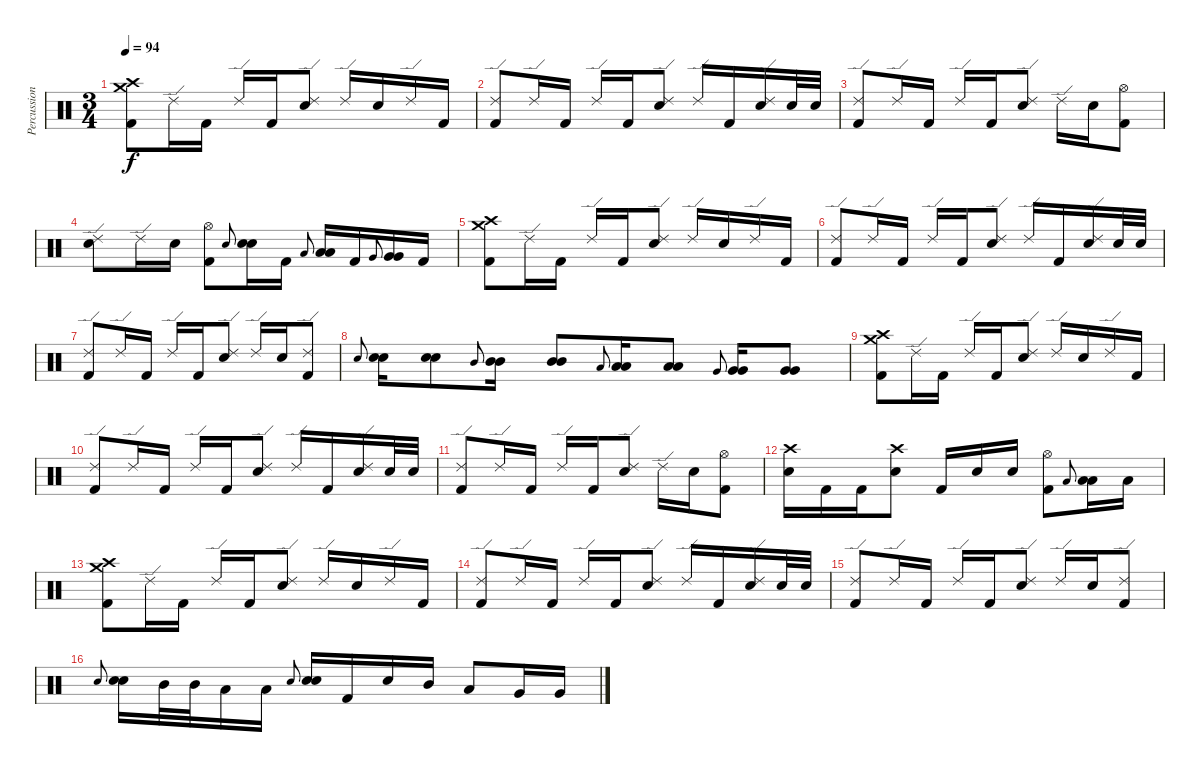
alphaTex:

\track ("Percussion" "Percussion") {instrument percussion}
\staff {score}
\articulation defaults
\ts (3 4)
\tempo 94
\clef neutral
\ks c
("Crash medium (hit)" "Crash high (hit)" "Kick (hit) 2").8{dy f} "Ride (edge) 2".16 "Kick (hit) 2".16 "Ride (edge) 2".16 "Kick (hit) 2".16 ("Ride (edge) 2" "Electric Snare (hit)").8 "Ride (edge) 2".16 "Electric Snare (hit)".16 "Ride (edge) 2".16 "Kick (hit) 2".16 |
("Ride (edge) 2" "Kick (hit) 2").8 "Ride (edge) 2".16 "Kick (hit) 2".16 "Ride (edge) 2".16 "Kick (hit) 2".16 ("Ride (edge) 2" "Electric Snare (hit)").8 "Ride (edge) 2".16 "Kick (hit) 2".16 ("Ride (edge) 2" "Electric Snare (hit)").16 "Electric Snare (hit)".32 "Electric Snare (hit)".32 |
("Ride (edge) 2" "Kick (hit) 2").8 "Ride (edge) 2".16 "Kick (hit) 2".16 "Ride (edge) 2".16 "Kick (hit) 2".16 ("Ride (edge) 2" "Electric Snare (hit)").8 "Ride (edge) 2".16 "Electric Snare (hit)".16 ("Hi-Hat (open)" "Kick (hit) 2").8 |
("Ride (edge) 2" "Electric Snare (hit)").8 "Ride (edge) 2".16 "Electric Snare (hit)".16 ("Hi-Hat (open)" "Kick (hit) 2").8 "Electric Snare (hit)".8{gr onbeat} ("Electric Snare (hit)" "Electric Snare (hit)").16 "Kick (hit) 2".16 "Low Tom (hit)".8{gr onbeat} ("Low Tom (hit)" "Low Tom (hit)").16 "Kick (hit) 2".16 "Very Low Tom (hit)".8{gr onbeat} ("Very Low Tom (hit)" "Very Low Tom (hit)").16 "Kick (hit) 2".16 |
("Crash medium (hit)" "Crash high (hit)" "Kick (hit) 2").8 "Ride (edge) 2".16 "Kick (hit) 2".16 "Ride (edge) 2".16 "Kick (hit) 2".16 ("Ride (edge) 2" "Electric Snare (hit)").8 "Ride (edge) 2".16 "Electric Snare (hit)".16 "Ride (edge) 2".16 "Kick (hit) 2".16 |
("Ride (edge) 2" "Kick (hit) 2").8 "Ride (edge) 2".16 "Kick (hit) 2".16 "Ride (edge) 2".16 "Kick (hit) 2".16 ("Ride (edge) 2" "Electric Snare (hit)").8 "Ride (edge) 2".16 "Kick (hit) 2".16 ("Ride (edge) 2" "Electric Snare (hit)").16 "Electric Snare (hit)".32 "Electric Snare (hit)".32 |
("Ride (edge) 2" "Kick (hit) 2").8 "Ride (edge) 2".16 "Kick (hit) 2".16 "Ride (edge) 2".16 "Kick (hit) 2".16 ("Ride (edge) 2" "Electric Snare (hit)").8 "Ride (edge) 2".16 "Electric Snare (hit)".16 ("Ride (edge) 2" "Kick (hit) 2").8 |
"Electric Snare (hit)".8{gr onbeat} ("Electric Snare (hit)" "Electric Snare (hit)").16 ("Electric Snare (hit)" "Electric Snare (hit)").8 "Mid Tom (hit)".8{gr onbeat} ("Mid Tom (hit)" "Mid Tom (hit)").16 ("Mid Tom (hit)" "Mid Tom (hit)").8 "Low Tom (hit)".8{gr onbeat} ("Low Tom (hit)" "Low Tom (hit)").16 ("Low Tom (hit)" "Low Tom (hit)").8 "Very Low Tom (hit)".8{gr onbeat} ("Very Low Tom (hit)" "Very Low Tom (hit)").16 ("Very Low Tom (hit)" "Very Low Tom (hit)").8 |
("Crash medium (hit)" "Crash high (hit)" "Kick (hit) 2").8 "Ride (edge) 2".16 "Kick (hit) 2".16 "Ride (edge) 2".16 "Kick (hit) 2".16 ("Ride (edge) 2" "Electric Snare (hit)").8 "Ride (edge) 2".16 "Electric Snare (hit)".16 "Ride (edge) 2".16 "Kick (hit) 2".16 |
("Ride (edge) 2" "Kick (hit) 2").8 "Ride (edge) 2".16 "Kick (hit) 2".16 "Ride (edge) 2".16 "Kick (hit) 2".16 ("Ride (edge) 2" "Electric Snare (hit)").8 "Ride (edge) 2".16 "Kick (hit) 2".16 ("Ride (edge) 2" "Electric Snare (hit)").16 "Electric Snare (hit)".32 "Electric Snare (hit)".32 |
("Ride (edge) 2" "Kick (hit) 2").8 "Ride (edge) 2".16 "Kick (hit) 2".16 "Ride (edge) 2".16 "Kick (hit) 2".16 ("Ride (edge) 2" "Electric Snare (hit)").8 "Ride (edge) 2".16 "Electric Snare (hit)".16 ("Hi-Hat (open)" "Kick (hit) 2").8 |
("Crash high (hit)" "Electric Snare (hit)").16 "Kick (hit) 2".16 "Kick (hit) 2".16 ("Crash high (hit)" "Electric Snare (hit)").8 "Kick (hit) 2".16 "Electric Snare (hit)".16 "Electric Snare (hit)".16 ("Hi-Hat (open)" "Kick (hit) 2").8 "Low Tom (hit)".8{gr onbeat} ("Low Tom (hit)" "Low Tom (hit)").16 "Low Tom (hit)".16 |
("Crash medium (hit)" "Crash high (hit)" "Kick (hit) 2").8 "Ride (edge) 2".16 "Kick (hit) 2".16 "Ride (edge) 2".16 "Kick (hit) 2".16 ("Ride (edge) 2" "Electric Snare (hit)").8 "Ride (edge) 2".16 "Electric Snare (hit)".16 "Ride (edge) 2".16 "Kick (hit) 2".16 |
("Ride (edge) 2" "Kick (hit) 2").8 "Ride (edge) 2".16 "Kick (hit) 2".16 "Ride (edge) 2".16 "Kick (hit) 2".16 ("Ride (edge) 2" "Electric Snare (hit)").8 "Ride (edge) 2".16 "Kick (hit) 2".16 ("Ride (edge) 2" "Electric Snare (hit)").16 "Electric Snare (hit)".32 "Electric Snare (hit)".32 |
("Ride (edge) 2" "Kick (hit) 2").8 "Ride (edge) 2".16 "Kick (hit) 2".16 "Ride (edge) 2".16 "Kick (hit) 2".16 ("Ride (edge) 2" "Electric Snare (hit)").8 "Ride (edge) 2".16 "Electric Snare (hit)".16 ("Ride (edge) 2" "Kick (hit) 2").8 |
"Electric Snare (hit)".8{gr onbeat} ("Electric Snare (hit)" "Electric Snare (hit)").16 "Mid Tom (hit)".32 "Mid Tom (hit)".32 "Low Tom (hit)".16 "Low Tom (hit)".16 "Electric Snare (hit)".8{gr onbeat} ("Electric Snare (hit)" "Electric Snare (hit)").16 "Kick (hit) 2".16 "Electric Snare (hit)".16 "Mid Tom (hit)".16 "Low Tom (hit)".8 "Very Low Tom (hit)".16 "Very Low Tom (hit)".16
